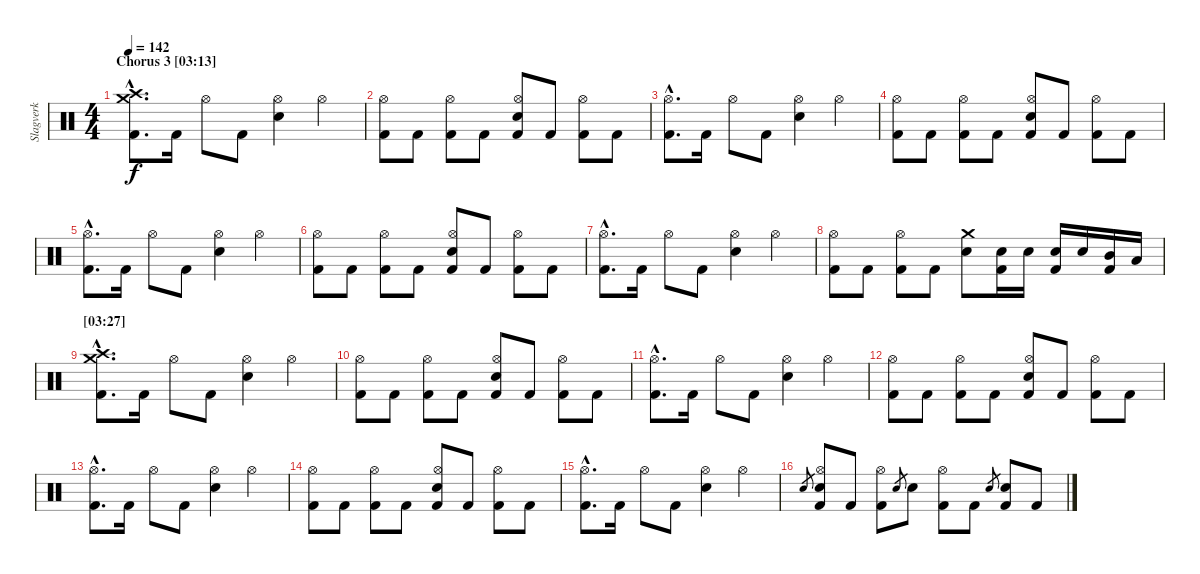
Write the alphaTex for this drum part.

\track ("Slagverk" "Slagverk") {instrument percussion}
\staff {score}
\articulation defaults
\ts (4 4)
\section ("" "Chorus 3 [03:13]")
\tempo 142
\clef neutral
\ks c
("Crash medium (hit)"{hac} "Crash high (hit)"{hac} "Kick (hit) 2"{hac}).8{d dy f} "Kick (hit) 2".16 "Hi-Hat (open)".8 "Kick (hit) 2".8 ("Hi-Hat (open)" "Electric Snare (hit)").4 "Hi-Hat (open)".4 |
("Hi-Hat (open)" "Kick (hit) 2").8 "Kick (hit) 2".8 ("Hi-Hat (open)" "Kick (hit) 2").8 "Kick (hit) 2".8 ("Hi-Hat (open)" "Electric Snare (hit)" "Kick (hit) 2").8 "Kick (hit) 2".8 ("Hi-Hat (open)" "Kick (hit) 2").8 "Kick (hit) 2".8 |
("Hi-Hat (open)"{hac} "Kick (hit) 2"{hac}).8{d} "Kick (hit) 2".16 "Hi-Hat (open)".8 "Kick (hit) 2".8 ("Hi-Hat (open)" "Electric Snare (hit)").4 "Hi-Hat (open)".4 |
("Hi-Hat (open)" "Kick (hit) 2").8 "Kick (hit) 2".8 ("Hi-Hat (open)" "Kick (hit) 2").8 "Kick (hit) 2".8 ("Hi-Hat (open)" "Electric Snare (hit)" "Kick (hit) 2").8 "Kick (hit) 2".8 ("Hi-Hat (open)" "Kick (hit) 2").8 "Kick (hit) 2".8 |
("Hi-Hat (open)"{hac} "Kick (hit) 2"{hac}).8{d} "Kick (hit) 2".16 "Hi-Hat (open)".8 "Kick (hit) 2".8 ("Hi-Hat (open)" "Electric Snare (hit)").4 "Hi-Hat (open)".4 |
("Hi-Hat (open)" "Kick (hit) 2").8 "Kick (hit) 2".8 ("Hi-Hat (open)" "Kick (hit) 2").8 "Kick (hit) 2".8 ("Hi-Hat (open)" "Electric Snare (hit)" "Kick (hit) 2").8 "Kick (hit) 2".8 ("Hi-Hat (open)" "Kick (hit) 2").8 "Kick (hit) 2".8 |
("Hi-Hat (open)"{hac} "Kick (hit) 2"{hac}).8{d} "Kick (hit) 2".16 "Hi-Hat (open)".8 "Kick (hit) 2".8 ("Hi-Hat (open)" "Electric Snare (hit)").4 "Hi-Hat (open)".4 |
("Hi-Hat (open)" "Kick (hit) 2").8 "Kick (hit) 2".8 ("Hi-Hat (open)" "Kick (hit) 2").8 "Kick (hit) 2".8 ("Crash medium (hit)" "Electric Snare (hit)").8 ("Electric Snare (hit)" "Kick (hit) 2").16 "Electric Snare (hit)".16 ("Electric Snare (hit)" "Kick (hit) 2").16 "Electric Snare (hit)".16 ("Mid Tom (hit)" "Kick (hit) 2").16 "Low Tom (hit)".16 |
\section ("" "[03:27]")
("Crash medium (hit)"{hac} "Crash high (hit)"{hac} "Kick (hit) 2"{hac}).8{d} "Kick (hit) 2".16 "Hi-Hat (open)".8 "Kick (hit) 2".8 ("Hi-Hat (open)" "Electric Snare (hit)").4 "Hi-Hat (open)".4 |
("Hi-Hat (open)" "Kick (hit) 2").8 "Kick (hit) 2".8 ("Hi-Hat (open)" "Kick (hit) 2").8 "Kick (hit) 2".8 ("Hi-Hat (open)" "Electric Snare (hit)" "Kick (hit) 2").8 "Kick (hit) 2".8 ("Hi-Hat (open)" "Kick (hit) 2").8 "Kick (hit) 2".8 |
("Hi-Hat (open)"{hac} "Kick (hit) 2"{hac}).8{d} "Kick (hit) 2".16 "Hi-Hat (open)".8 "Kick (hit) 2".8 ("Hi-Hat (open)" "Electric Snare (hit)").4 "Hi-Hat (open)".4 |
("Hi-Hat (open)" "Kick (hit) 2").8 "Kick (hit) 2".8 ("Hi-Hat (open)" "Kick (hit) 2").8 "Kick (hit) 2".8 ("Hi-Hat (open)" "Electric Snare (hit)" "Kick (hit) 2").8 "Kick (hit) 2".8 ("Hi-Hat (open)" "Kick (hit) 2").8 "Kick (hit) 2".8 |
("Hi-Hat (open)"{hac} "Kick (hit) 2"{hac}).8{d} "Kick (hit) 2".16 "Hi-Hat (open)".8 "Kick (hit) 2".8 ("Hi-Hat (open)" "Electric Snare (hit)").4 "Hi-Hat (open)".4 |
("Hi-Hat (open)" "Kick (hit) 2").8 "Kick (hit) 2".8 ("Hi-Hat (open)" "Kick (hit) 2").8 "Kick (hit) 2".8 ("Hi-Hat (open)" "Electric Snare (hit)" "Kick (hit) 2").8 "Kick (hit) 2".8 ("Hi-Hat (open)" "Kick (hit) 2").8 "Kick (hit) 2".8 |
("Hi-Hat (open)"{hac} "Kick (hit) 2"{hac}).8{d} "Kick (hit) 2".16 "Hi-Hat (open)".8 "Kick (hit) 2".8 ("Hi-Hat (open)" "Electric Snare (hit)").4 "Hi-Hat (open)".4 |
"Electric Snare (hit)".8{gr} ("Hi-Hat (open)" "Electric Snare (hit)" "Kick (hit) 2").8 "Kick (hit) 2".8 ("Hi-Hat (open)" "Kick (hit) 2").8 "Electric Snare (hit)".8{gr} "Electric Snare (hit)".8 ("Hi-Hat (open)" "Kick (hit) 2").8 "Kick (hit) 2".8 "Electric Snare (hit)".8{gr} ("Electric Snare (hit)" "Kick (hit) 2").8 "Kick (hit) 2".8
